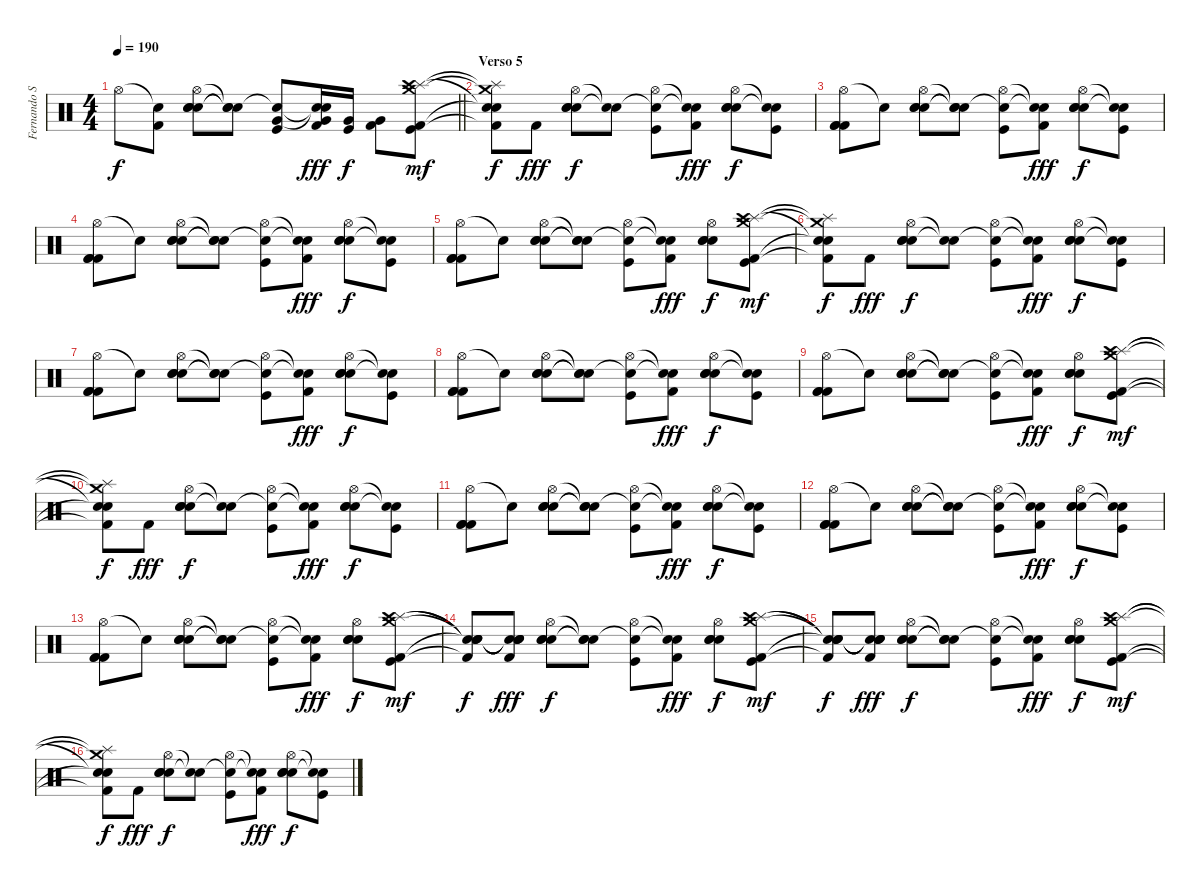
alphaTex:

\track ("Fernando Sarcella" "Fernando S") {instrument percussion}
\staff {score}
\articulation defaults
\ts (4 4)
\tempo 190
\clef neutral
\barLineRight lightlight
\ks c "Hi-Hat (open)".8{dy f}
("Snare (hit)"{t} "Kick (hit) 2").8 ("Hi-Hat (open)" "Electric Snare (hit)" "Electric Snare (hit)" "Electric Snare (hit)").8 ("Snare (hit)"{t} "Snare (hit)"{t} "Snare (hit)"{t}).8 ("Snare (hit)"{t} "Very Low Tom (hit)" "Kick (hit)").8 ("Snare (hit)"{t} "Snare (hit)"{t} "Very Low Tom (hit)" "Kick (hit) 2").16{dy fff} ("Very Low Tom (hit)" "Kick (hit)").16{dy f} ("Very Low Tom (hit)" "Kick (hit) 2").8 ("Crash medium (hit)" "Splash (hit)" "Crash high (hit)" "Kick (hit) 2" "Kick (hit)").8{dy mf} |
\section ("" "Verso 5")
("Crash medium (hit)"{t} "Splash (hit)"{t} "Snare (hit)"{t} "Snare (hit)"{t} "Kick (hit) 2"{t}).8{dy f} "Kick (hit) 2".8{dy fff} ("Hi-Hat (open)" "Electric Snare (hit)" "Electric Snare (hit)" "Electric Snare (hit)").8{dy f} ("Snare (hit)"{t} "Snare (hit)"{t}).8 ("Hi-Hat (open)" "Snare (hit)"{t} "Kick (hit)").8 ("Snare (hit)"{t} "Snare (hit)"{t} "Kick (hit) 2").8{dy fff} ("Hi-Hat (open)" "Electric Snare (hit)" "Electric Snare (hit)" "Electric Snare (hit)").8{dy f} ("Snare (hit)"{t} "Snare (hit)"{t} "Kick (hit)").8 |
("Hi-Hat (open)" "Kick (hit) 2" "Kick (hit) 2" "Kick (hit) 2").8 "Snare (hit)"{t}.8 ("Hi-Hat (open)" "Electric Snare (hit)" "Electric Snare (hit)" "Electric Snare (hit)").8 ("Snare (hit)"{t} "Snare (hit)"{t} "Snare (hit)"{t}).8 ("Hi-Hat (open)" "Snare (hit)"{t} "Kick (hit)").8 ("Snare (hit)"{t} "Snare (hit)"{t} "Kick (hit) 2").8{dy fff} ("Hi-Hat (open)" "Electric Snare (hit)" "Electric Snare (hit)" "Electric Snare (hit)").8{dy f} ("Snare (hit)"{t} "Snare (hit)"{t} "Kick (hit)").8 |
("Hi-Hat (open)" "Kick (hit) 2" "Kick (hit) 2" "Kick (hit) 2").8 "Snare (hit)"{t}.8 ("Hi-Hat (open)" "Electric Snare (hit)" "Electric Snare (hit)" "Electric Snare (hit)").8 ("Snare (hit)"{t} "Snare (hit)"{t} "Snare (hit)"{t}).8 ("Hi-Hat (open)" "Snare (hit)"{t} "Kick (hit)").8 ("Snare (hit)"{t} "Snare (hit)"{t} "Kick (hit) 2").8{dy fff} ("Hi-Hat (open)" "Electric Snare (hit)" "Electric Snare (hit)" "Electric Snare (hit)").8{dy f} ("Snare (hit)"{t} "Snare (hit)"{t} "Kick (hit)").8 |
("Hi-Hat (open)" "Kick (hit) 2" "Kick (hit) 2" "Kick (hit) 2").8 "Snare (hit)"{t}.8 ("Hi-Hat (open)" "Electric Snare (hit)" "Electric Snare (hit)" "Electric Snare (hit)").8 ("Snare (hit)"{t} "Snare (hit)"{t} "Snare (hit)"{t}).8 ("Hi-Hat (open)" "Snare (hit)"{t} "Kick (hit)").8 ("Snare (hit)"{t} "Snare (hit)"{t} "Kick (hit) 2").8{dy fff} ("Hi-Hat (open)" "Electric Snare (hit)" "Electric Snare (hit)" "Electric Snare (hit)").8{dy f} ("Crash medium (hit)" "Splash (hit)" "Crash high (hit)" "Kick (hit) 2" "Kick (hit)").8{dy mf} |
("Crash medium (hit)"{t} "Splash (hit)"{t} "Snare (hit)"{t} "Snare (hit)"{t} "Kick (hit) 2"{t}).8{dy f} "Kick (hit) 2".8{dy fff} ("Hi-Hat (open)" "Electric Snare (hit)" "Electric Snare (hit)" "Electric Snare (hit)").8{dy f} ("Snare (hit)"{t} "Snare (hit)"{t}).8 ("Hi-Hat (open)" "Snare (hit)"{t} "Kick (hit)").8 ("Snare (hit)"{t} "Snare (hit)"{t} "Kick (hit) 2").8{dy fff} ("Hi-Hat (open)" "Electric Snare (hit)" "Electric Snare (hit)" "Electric Snare (hit)").8{dy f} ("Snare (hit)"{t} "Snare (hit)"{t} "Kick (hit)").8 |
("Hi-Hat (open)" "Kick (hit) 2" "Kick (hit) 2" "Kick (hit) 2").8 "Snare (hit)"{t}.8 ("Hi-Hat (open)" "Electric Snare (hit)" "Electric Snare (hit)" "Electric Snare (hit)").8 ("Snare (hit)"{t} "Snare (hit)"{t} "Snare (hit)"{t}).8 ("Hi-Hat (open)" "Snare (hit)"{t} "Kick (hit)").8 ("Snare (hit)"{t} "Snare (hit)"{t} "Kick (hit) 2").8{dy fff} ("Hi-Hat (open)" "Electric Snare (hit)" "Electric Snare (hit)" "Electric Snare (hit)").8{dy f} ("Snare (hit)"{t} "Snare (hit)"{t} "Kick (hit)").8 |
("Hi-Hat (open)" "Kick (hit) 2" "Kick (hit) 2" "Kick (hit) 2").8 "Snare (hit)"{t}.8 ("Hi-Hat (open)" "Electric Snare (hit)" "Electric Snare (hit)" "Electric Snare (hit)").8 ("Snare (hit)"{t} "Snare (hit)"{t} "Snare (hit)"{t}).8 ("Hi-Hat (open)" "Snare (hit)"{t} "Kick (hit)").8 ("Snare (hit)"{t} "Snare (hit)"{t} "Kick (hit) 2").8{dy fff} ("Hi-Hat (open)" "Electric Snare (hit)" "Electric Snare (hit)" "Electric Snare (hit)").8{dy f} ("Snare (hit)"{t} "Snare (hit)"{t} "Kick (hit)").8 |
("Hi-Hat (open)" "Kick (hit) 2" "Kick (hit) 2" "Kick (hit) 2").8 "Snare (hit)"{t}.8 ("Hi-Hat (open)" "Electric Snare (hit)" "Electric Snare (hit)" "Electric Snare (hit)").8 ("Snare (hit)"{t} "Snare (hit)"{t} "Snare (hit)"{t}).8 ("Hi-Hat (open)" "Snare (hit)"{t} "Kick (hit)").8 ("Snare (hit)"{t} "Snare (hit)"{t} "Kick (hit) 2").8{dy fff} ("Hi-Hat (open)" "Electric Snare (hit)" "Electric Snare (hit)" "Electric Snare (hit)").8{dy f} ("Crash medium (hit)" "Splash (hit)" "Crash high (hit)" "Kick (hit) 2" "Kick (hit)").8{dy mf} |
("Crash medium (hit)"{t} "Splash (hit)"{t} "Snare (hit)"{t} "Snare (hit)"{t} "Kick (hit) 2"{t}).8{dy f} "Kick (hit) 2".8{dy fff} ("Hi-Hat (open)" "Electric Snare (hit)" "Electric Snare (hit)" "Electric Snare (hit)").8{dy f} ("Snare (hit)"{t} "Snare (hit)"{t}).8 ("Hi-Hat (open)" "Snare (hit)"{t} "Kick (hit)").8 ("Snare (hit)"{t} "Snare (hit)"{t} "Kick (hit) 2").8{dy fff} ("Hi-Hat (open)" "Electric Snare (hit)" "Electric Snare (hit)" "Electric Snare (hit)").8{dy f} ("Snare (hit)"{t} "Snare (hit)"{t} "Kick (hit)").8 |
("Hi-Hat (open)" "Kick (hit) 2" "Kick (hit) 2" "Kick (hit) 2").8 "Snare (hit)"{t}.8 ("Hi-Hat (open)" "Electric Snare (hit)" "Electric Snare (hit)" "Electric Snare (hit)").8 ("Snare (hit)"{t} "Snare (hit)"{t} "Snare (hit)"{t}).8 ("Hi-Hat (open)" "Snare (hit)"{t} "Kick (hit)").8 ("Snare (hit)"{t} "Snare (hit)"{t} "Kick (hit) 2").8{dy fff} ("Hi-Hat (open)" "Electric Snare (hit)" "Electric Snare (hit)" "Electric Snare (hit)").8{dy f} ("Snare (hit)"{t} "Snare (hit)"{t} "Kick (hit)").8 |
("Hi-Hat (open)" "Kick (hit) 2" "Kick (hit) 2" "Kick (hit) 2").8 "Snare (hit)"{t}.8 ("Hi-Hat (open)" "Electric Snare (hit)" "Electric Snare (hit)" "Electric Snare (hit)").8 ("Snare (hit)"{t} "Snare (hit)"{t} "Snare (hit)"{t}).8 ("Hi-Hat (open)" "Snare (hit)"{t} "Kick (hit)").8 ("Snare (hit)"{t} "Snare (hit)"{t} "Kick (hit) 2").8{dy fff} ("Hi-Hat (open)" "Electric Snare (hit)" "Electric Snare (hit)" "Electric Snare (hit)").8{dy f} ("Snare (hit)"{t} "Snare (hit)"{t} "Kick (hit)").8 |
("Hi-Hat (open)" "Kick (hit) 2" "Kick (hit) 2" "Kick (hit) 2").8 "Snare (hit)"{t}.8 ("Hi-Hat (open)" "Electric Snare (hit)" "Electric Snare (hit)" "Electric Snare (hit)").8 ("Snare (hit)"{t} "Snare (hit)"{t} "Snare (hit)"{t}).8 ("Hi-Hat (open)" "Snare (hit)"{t} "Kick (hit)").8 ("Snare (hit)"{t} "Snare (hit)"{t} "Kick (hit) 2").8{dy fff} ("Hi-Hat (open)" "Electric Snare (hit)" "Electric Snare (hit)" "Electric Snare (hit)").8{dy f} ("Crash medium (hit)" "Splash (hit)" "Crash high (hit)" "Kick (hit) 2" "Kick (hit)").8{dy mf} |
("Snare (hit)"{t} "Snare (hit)"{t} "Snare (hit)"{t} "Snare (hit)"{t} "Kick (hit) 2"{t}).8{dy f} ("Snare (hit)"{t} "Snare (hit)"{t} "Snare (hit)"{t} "Snare (hit)"{t} "Kick (hit) 2").8{dy fff} ("Hi-Hat (open)" "Electric Snare (hit)" "Electric Snare (hit)" "Electric Snare (hit)").8{dy f} ("Snare (hit)"{t} "Snare (hit)"{t} "Snare (hit)"{t}).8 ("Hi-Hat (open)" "Snare (hit)"{t} "Kick (hit)").8 ("Snare (hit)"{t} "Snare (hit)"{t} "Kick (hit) 2").8{dy fff} ("Hi-Hat (open)" "Electric Snare (hit)" "Electric Snare (hit)" "Electric Snare (hit)").8{dy f} ("Crash medium (hit)" "Splash (hit)" "Crash high (hit)" "Kick (hit) 2" "Kick (hit)").8{dy mf} |
("Snare (hit)"{t} "Snare (hit)"{t} "Snare (hit)"{t} "Snare (hit)"{t} "Kick (hit) 2"{t}).8{dy f} ("Snare (hit)"{t} "Snare (hit)"{t} "Snare (hit)"{t} "Snare (hit)"{t} "Kick (hit) 2").8{dy fff} ("Hi-Hat (open)" "Electric Snare (hit)" "Electric Snare (hit)" "Electric Snare (hit)").8{dy f} ("Snare (hit)"{t} "Snare (hit)"{t} "Snare (hit)"{t}).8 ("Hi-Hat (open)" "Snare (hit)"{t} "Kick (hit)").8 ("Snare (hit)"{t} "Snare (hit)"{t} "Kick (hit) 2").8{dy fff} ("Hi-Hat (open)" "Electric Snare (hit)" "Electric Snare (hit)" "Electric Snare (hit)").8{dy f} ("Crash medium (hit)" "Splash (hit)" "Crash high (hit)" "Kick (hit) 2" "Kick (hit)").8{dy mf} |
("Crash medium (hit)"{t} "Splash (hit)"{t} "Snare (hit)"{t} "Snare (hit)"{t} "Kick (hit) 2"{t}).8{dy f} "Kick (hit) 2".8{dy fff} ("Hi-Hat (open)" "Electric Snare (hit)" "Electric Snare (hit)" "Electric Snare (hit)").8{dy f} ("Snare (hit)"{t} "Snare (hit)"{t}).8 ("Hi-Hat (open)" "Snare (hit)"{t} "Kick (hit)").8 ("Snare (hit)"{t} "Snare (hit)"{t} "Kick (hit) 2").8{dy fff} ("Hi-Hat (open)" "Electric Snare (hit)" "Electric Snare (hit)" "Electric Snare (hit)").8{dy f} ("Snare (hit)"{t} "Snare (hit)"{t} "Kick (hit)").8
